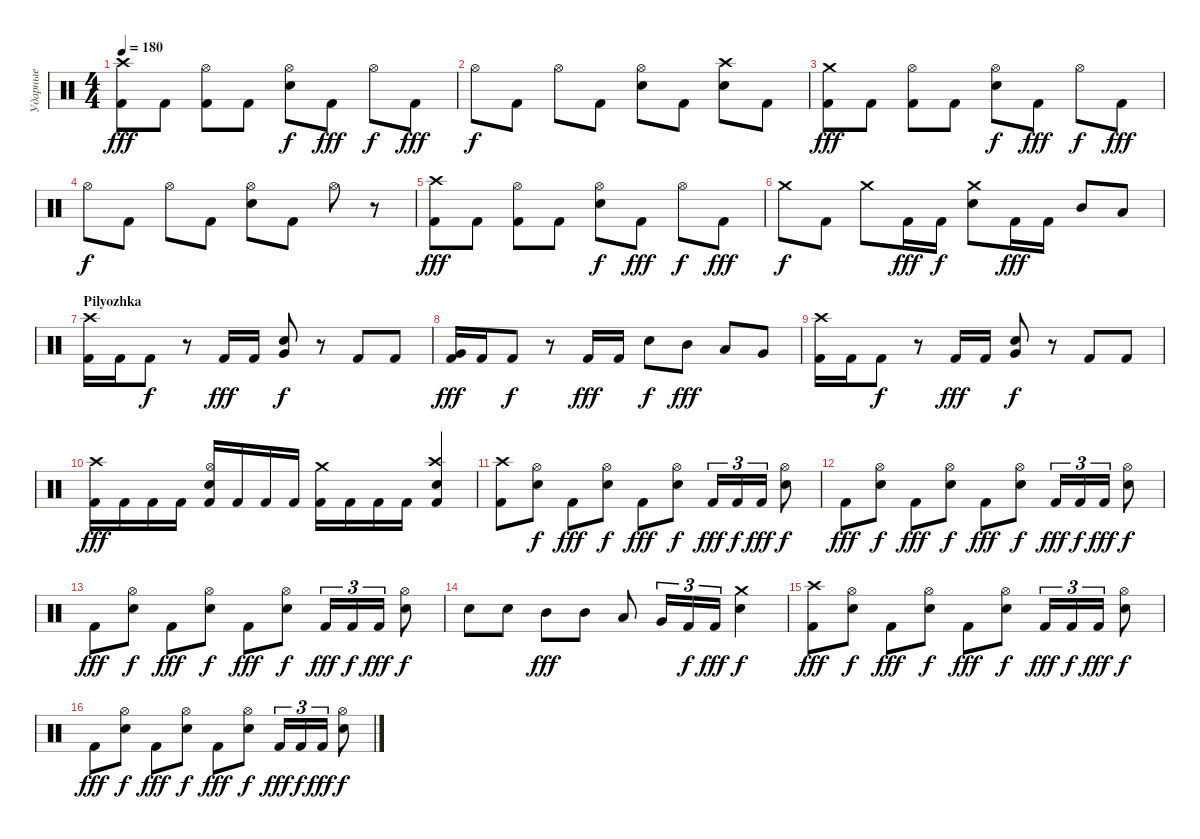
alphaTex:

\track ("Ударные" "Ударные") {instrument percussion}
\staff {score}
\articulation defaults
\ts (4 4)
\tempo 180
\clef neutral
\ks c
("Kick (hit) 2" "Crash high (hit)").8{dy fff} "Kick (hit) 2".8 ("Kick (hit) 2" "Hi-Hat (open)").8 "Kick (hit) 2".8 ("Snare (hit) 2" "Hi-Hat (open)").8{dy f} "Kick (hit) 2".8{dy fff} "Hi-Hat (open)".8{dy f} "Kick (hit) 2".8{dy fff} |
"Hi-Hat (open)".8{dy f} "Kick (hit) 2".8 "Hi-Hat (open)".8 "Kick (hit) 2".8 ("Snare (hit) 2" "Hi-Hat (open)").8 "Kick (hit) 2".8 ("Snare (hit) 2" "Crash high (hit)").8 "Kick (hit) 2".8 |
("Kick (hit) 2" "Crash medium (hit)").8{dy fff} "Kick (hit) 2".8 ("Kick (hit) 2" "Hi-Hat (open)").8 "Kick (hit) 2".8 ("Snare (hit) 2" "Hi-Hat (open)").8{dy f} "Kick (hit) 2".8{dy fff} "Hi-Hat (open)".8{dy f} "Kick (hit) 2".8{dy fff} |
"Hi-Hat (open)".8{dy f} "Kick (hit) 2".8 "Hi-Hat (open)".8 "Kick (hit) 2".8 ("Snare (hit) 2" "Hi-Hat (open)").8 "Kick (hit) 2".8 "Hi-Hat (open)".8 r.8 |
("Kick (hit) 2" "Crash high (hit)").8{dy fff} "Kick (hit) 2".8 ("Kick (hit) 2" "Hi-Hat (open)").8 "Kick (hit) 2".8 ("Snare (hit) 2" "Hi-Hat (open)").8{dy f} "Kick (hit) 2".8{dy fff} "Hi-Hat (open)".8{dy f} "Kick (hit) 2".8{dy fff} |
"Crash medium (hit)".8{dy f} "Kick (hit) 2".8 "Crash medium (hit)".8 "Kick (hit) 2".16{dy fff} "Kick (hit) 2".16{dy f} ("Snare (hit) 2" "Crash medium (hit)").8 "Kick (hit) 2".16{dy fff} "Kick (hit) 2".16 "Mid Tom (hit)".8 "Low Tom (hit)".8 |
\section ("" "Pilyozhka")
("Kick (hit) 2" "Crash high (hit)").16 "Kick (hit) 2".16 "Kick (hit) 2".8{dy f} r.8 "Kick (hit) 2".16{dy fff} "Kick (hit) 2".16 ("Snare (hit) 2" "Very Low Tom (hit)").8{dy f} r.8 "Kick (hit) 2".8 "Kick (hit) 2".8 |
("Kick (hit) 2" "Very Low Tom (hit)").16{dy fff} "Kick (hit) 2".16 "Kick (hit) 2".8{dy f} r.8 "Kick (hit) 2".16{dy fff} "Kick (hit) 2".16 "Snare (hit) 2".8{dy f} "Mid Tom (hit)".8{dy fff} "Low Tom (hit)".8 "Very Low Tom (hit)".8 |
("Kick (hit) 2" "Crash high (hit)").16 "Kick (hit) 2".16 "Kick (hit) 2".8{dy f} r.8 "Kick (hit) 2".16{dy fff} "Kick (hit) 2".16 ("Snare (hit) 2" "Very Low Tom (hit)").8{dy f} r.8 "Kick (hit) 2".8 "Kick (hit) 2".8 |
("Kick (hit) 2" "Crash high (hit)").16{dy fff} "Kick (hit) 2".16 "Kick (hit) 2".16 "Kick (hit) 2".16 ("Kick (hit) 2" "Snare (hit) 2" "Hi-Hat (open)").16 "Kick (hit) 2".16 "Kick (hit) 2".16 "Kick (hit) 2".16 ("Kick (hit) 2" "Crash medium (hit)").16 "Kick (hit) 2".16 "Kick (hit) 2".16 "Kick (hit) 2".16 ("Kick (hit) 2" "Snare (hit) 2" "Crash high (hit)").4 |
("Kick (hit) 2" "Crash high (hit)").8 ("Snare (hit) 2" "Hi-Hat (open)").8{dy f} "Kick (hit) 2".8{dy fff} ("Snare (hit) 2" "Hi-Hat (open)").8{dy f} "Kick (hit) 2".8{dy fff} ("Snare (hit) 2" "Hi-Hat (open)").8{dy f} "Kick (hit) 2".16{tu (3 2) dy fff} "Kick (hit) 2".16{tu (3 2) dy f} "Kick (hit) 2".16{tu (3 2) dy fff} ("Snare (hit) 2" "Hi-Hat (open)").8{dy f} |
"Kick (hit) 2".8{dy fff} ("Snare (hit) 2" "Hi-Hat (open)").8{dy f} "Kick (hit) 2".8{dy fff} ("Snare (hit) 2" "Hi-Hat (open)").8{dy f} "Kick (hit) 2".8{dy fff} ("Snare (hit) 2" "Hi-Hat (open)").8{dy f} "Kick (hit) 2".16{tu (3 2) dy fff} "Kick (hit) 2".16{tu (3 2) dy f} "Kick (hit) 2".16{tu (3 2) dy fff} ("Snare (hit) 2" "Hi-Hat (open)").8{dy f} |
"Kick (hit) 2".8{dy fff} ("Snare (hit) 2" "Hi-Hat (open)").8{dy f} "Kick (hit) 2".8{dy fff} ("Snare (hit) 2" "Hi-Hat (open)").8{dy f} "Kick (hit) 2".8{dy fff} ("Snare (hit) 2" "Hi-Hat (open)").8{dy f} "Kick (hit) 2".16{tu (3 2) dy fff} "Kick (hit) 2".16{tu (3 2) dy f} "Kick (hit) 2".16{tu (3 2) dy fff} ("Snare (hit) 2" "Hi-Hat (open)").8{dy f} |
"Snare (hit) 2".8 "Snare (hit) 2".8 "Mid Tom (hit)".8{dy fff} "Mid Tom (hit)".8 "Low Tom (hit)".8 "Very Low Tom (hit)".16{tu (3 2)} "Kick (hit) 2".16{tu (3 2) dy f} "Kick (hit) 2".16{tu (3 2) dy fff} ("Snare (hit) 2" "Crash medium (hit)").4{dy f} |
("Kick (hit) 2" "Crash high (hit)").8{dy fff} ("Snare (hit) 2" "Hi-Hat (open)").8{dy f} "Kick (hit) 2".8{dy fff} ("Snare (hit) 2" "Hi-Hat (open)").8{dy f} "Kick (hit) 2".8{dy fff} ("Snare (hit) 2" "Hi-Hat (open)").8{dy f} "Kick (hit) 2".16{tu (3 2) dy fff} "Kick (hit) 2".16{tu (3 2) dy f} "Kick (hit) 2".16{tu (3 2) dy fff} ("Snare (hit) 2" "Hi-Hat (open)").8{dy f} |
"Kick (hit) 2".8{dy fff} ("Snare (hit) 2" "Hi-Hat (open)").8{dy f} "Kick (hit) 2".8{dy fff} ("Snare (hit) 2" "Hi-Hat (open)").8{dy f} "Kick (hit) 2".8{dy fff} ("Snare (hit) 2" "Hi-Hat (open)").8{dy f} "Kick (hit) 2".16{tu (3 2) dy fff} "Kick (hit) 2".16{tu (3 2) dy f} "Kick (hit) 2".16{tu (3 2) dy fff} ("Snare (hit) 2" "Hi-Hat (open)").8{dy f}
